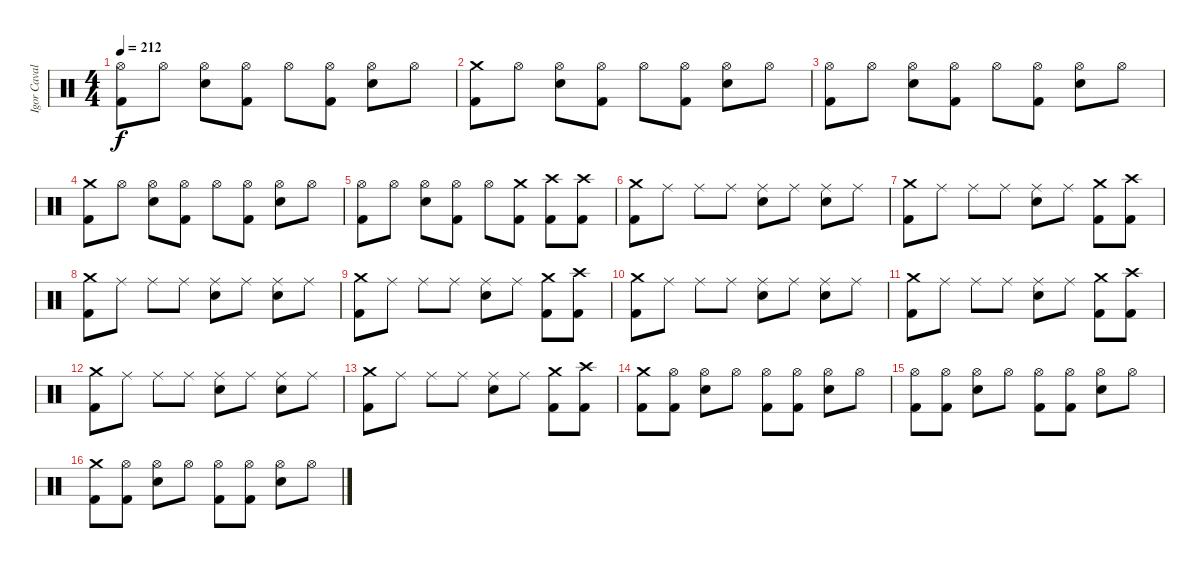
\track ("Igor Cavalera" "Igor Caval") {instrument percussion}
\staff {score}
\articulation defaults
\ts (4 4)
\tempo 212
\clef neutral
\ks c
("Kick (hit) 2" "Hi-Hat (open)").8{dy f} "Hi-Hat (open)".8 ("Snare (hit) 2" "Hi-Hat (open)").8 ("Kick (hit) 2" "Hi-Hat (open)").8 "Hi-Hat (open)".8 ("Kick (hit) 2" "Hi-Hat (open)").8 ("Snare (hit) 2" "Hi-Hat (open)").8 "Hi-Hat (open)".8 |
("Kick (hit) 2" "Crash medium (hit)").8 "Hi-Hat (open)".8 ("Snare (hit) 2" "Hi-Hat (open)").8 ("Kick (hit) 2" "Hi-Hat (open)").8 "Hi-Hat (open)".8 ("Kick (hit) 2" "Hi-Hat (open)").8 ("Snare (hit) 2" "Hi-Hat (open)").8 "Hi-Hat (open)".8 |
("Kick (hit) 2" "Hi-Hat (open)").8 "Hi-Hat (open)".8 ("Snare (hit) 2" "Hi-Hat (open)").8 ("Kick (hit) 2" "Hi-Hat (open)").8 "Hi-Hat (open)".8 ("Kick (hit) 2" "Hi-Hat (open)").8 ("Snare (hit) 2" "Hi-Hat (open)").8 "Hi-Hat (open)".8 |
("Kick (hit) 2" "Crash medium (hit)").8 "Hi-Hat (open)".8 ("Snare (hit) 2" "Hi-Hat (open)").8 ("Kick (hit) 2" "Hi-Hat (open)").8 "Hi-Hat (open)".8 ("Kick (hit) 2" "Hi-Hat (open)").8 ("Snare (hit) 2" "Hi-Hat (open)").8 "Hi-Hat (open)".8 |
("Kick (hit) 2" "Hi-Hat (open)").8 "Hi-Hat (open)".8 ("Snare (hit) 2" "Hi-Hat (open)").8 ("Kick (hit) 2" "Hi-Hat (open)").8 "Hi-Hat (open)".8 ("Kick (hit) 2" "Crash medium (hit)").8 ("Crash high (hit)" "Kick (hit) 2").8 ("Crash high (hit)" "Kick (hit) 2").8 |
("Kick (hit) 2" "Crash medium (hit)").8 "Ride (middle)".8 "Ride (middle)".8 "Ride (middle)".8 ("Snare (hit) 2" "Ride (middle)").8 "Ride (middle)".8 ("Snare (hit) 2" "Ride (middle)").8 "Ride (middle)".8 |
("Kick (hit) 2" "Crash medium (hit)").8 "Ride (middle)".8 "Ride (middle)".8 "Ride (middle)".8 ("Snare (hit) 2" "Ride (middle)").8 "Ride (middle)".8 ("Kick (hit) 2" "Crash medium (hit)").8 ("Kick (hit) 2" "Crash high (hit)").8 |
("Kick (hit) 2" "Crash medium (hit)").8 "Ride (middle)".8 "Ride (middle)".8 "Ride (middle)".8 ("Snare (hit) 2" "Ride (middle)").8 "Ride (middle)".8 ("Snare (hit) 2" "Ride (middle)").8 "Ride (middle)".8 |
("Kick (hit) 2" "Crash medium (hit)").8 "Ride (middle)".8 "Ride (middle)".8 "Ride (middle)".8 ("Snare (hit) 2" "Ride (middle)").8 "Ride (middle)".8 ("Kick (hit) 2" "Crash medium (hit)").8 ("Kick (hit) 2" "Crash high (hit)").8 |
("Kick (hit) 2" "Crash medium (hit)").8 "Ride (middle)".8 "Ride (middle)".8 "Ride (middle)".8 ("Snare (hit) 2" "Ride (middle)").8 "Ride (middle)".8 ("Snare (hit) 2" "Ride (middle)").8 "Ride (middle)".8 |
("Kick (hit) 2" "Crash medium (hit)").8 "Ride (middle)".8 "Ride (middle)".8 "Ride (middle)".8 ("Snare (hit) 2" "Ride (middle)").8 "Ride (middle)".8 ("Kick (hit) 2" "Crash medium (hit)").8 ("Kick (hit) 2" "Crash high (hit)").8 |
("Kick (hit) 2" "Crash medium (hit)").8 "Ride (middle)".8 "Ride (middle)".8 "Ride (middle)".8 ("Snare (hit) 2" "Ride (middle)").8 "Ride (middle)".8 ("Snare (hit) 2" "Ride (middle)").8 "Ride (middle)".8 |
("Kick (hit) 2" "Crash medium (hit)").8 "Ride (middle)".8 "Ride (middle)".8 "Ride (middle)".8 ("Snare (hit) 2" "Ride (middle)").8 "Ride (middle)".8 ("Kick (hit) 2" "Crash medium (hit)").8 ("Kick (hit) 2" "Crash high (hit)").8 |
("Kick (hit) 2" "Crash medium (hit)").8 ("Kick (hit) 2" "Hi-Hat (open)").8 ("Snare (hit) 2" "Hi-Hat (open)").8 "Hi-Hat (open)".8 ("Kick (hit) 2" "Hi-Hat (open)").8 ("Kick (hit) 2" "Hi-Hat (open)").8 ("Snare (hit) 2" "Hi-Hat (open)").8 "Hi-Hat (open)".8 |
("Kick (hit) 2" "Hi-Hat (open)").8 ("Kick (hit) 2" "Hi-Hat (open)").8 ("Snare (hit) 2" "Hi-Hat (open)").8 "Hi-Hat (open)".8 ("Kick (hit) 2" "Hi-Hat (open)").8 ("Kick (hit) 2" "Hi-Hat (open)").8 ("Snare (hit) 2" "Hi-Hat (open)").8 "Hi-Hat (open)".8 |
("Kick (hit) 2" "Crash medium (hit)").8 ("Kick (hit) 2" "Hi-Hat (open)").8 ("Snare (hit) 2" "Hi-Hat (open)").8 "Hi-Hat (open)".8 ("Kick (hit) 2" "Hi-Hat (open)").8 ("Kick (hit) 2" "Hi-Hat (open)").8 ("Snare (hit) 2" "Hi-Hat (open)").8 "Hi-Hat (open)".8
